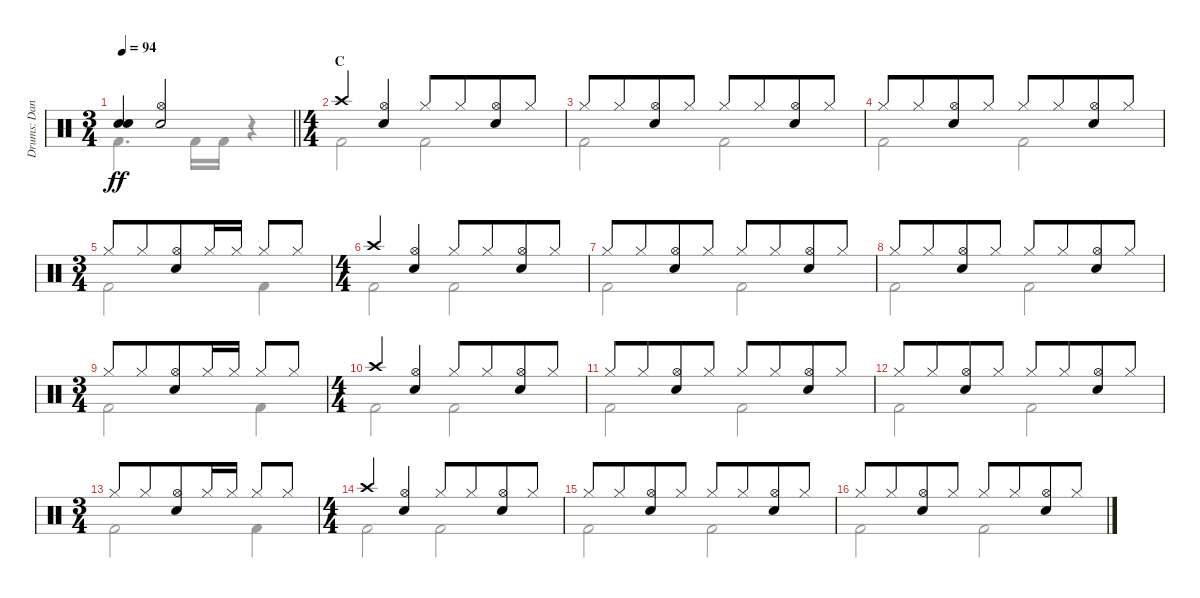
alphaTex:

\track ("Drums: Dana" "Drums: Dan") {instrument percussion}
\staff {score}
\articulation defaults
\voice
\ts (3 4)
\tempo 94
\clef neutral
\barLineRight lightlight
\ks c
("Snare (hit)"{t} "Snare (hit)"{t}).4{dy ff} ("Hi-Hat (open)" "Snare (hit) 2").2 |
\ts (4 4)
\section ("" "C")
"Crash high (hit)".4 ("Hi-Hat (open)" "Snare (hit) 2").4 "Hi-Hat (closed)".8 "Hi-Hat (closed)".8{beam merge} ("Hi-Hat (open)" "Snare (hit) 2").8 "Hi-Hat (closed)".8 |
"Hi-Hat (closed)".8 "Hi-Hat (closed)".8{beam merge} ("Hi-Hat (open)" "Snare (hit) 2").8 "Hi-Hat (closed)".8 "Hi-Hat (closed)".8 "Hi-Hat (closed)".8{beam merge} ("Hi-Hat (open)" "Snare (hit) 2").8 "Hi-Hat (closed)".8 |
"Hi-Hat (closed)".8 "Hi-Hat (closed)".8{beam merge} ("Hi-Hat (open)" "Snare (hit) 2").8 "Hi-Hat (closed)".8 "Hi-Hat (closed)".8 "Hi-Hat (closed)".8{beam merge} ("Hi-Hat (open)" "Snare (hit) 2").8 "Hi-Hat (closed)".8 |
\ts (3 4)
"Hi-Hat (closed)".8 "Hi-Hat (closed)".8{beam merge} ("Hi-Hat (open)" "Snare (hit) 2").8 "Hi-Hat (closed)".16 "Hi-Hat (closed)".16 "Hi-Hat (closed)".8 "Hi-Hat (closed)".8 |
\ts (4 4)
"Crash high (hit)".4 ("Hi-Hat (open)" "Snare (hit) 2").4 "Hi-Hat (closed)".8 "Hi-Hat (closed)".8{beam merge} ("Hi-Hat (open)" "Snare (hit) 2").8 "Hi-Hat (closed)".8 |
"Hi-Hat (closed)".8 "Hi-Hat (closed)".8{beam merge} ("Hi-Hat (open)" "Snare (hit) 2").8 "Hi-Hat (closed)".8 "Hi-Hat (closed)".8 "Hi-Hat (closed)".8{beam merge} ("Hi-Hat (open)" "Snare (hit) 2").8 "Hi-Hat (closed)".8 |
"Hi-Hat (closed)".8 "Hi-Hat (closed)".8{beam merge} ("Hi-Hat (open)" "Snare (hit) 2").8 "Hi-Hat (closed)".8 "Hi-Hat (closed)".8 "Hi-Hat (closed)".8{beam merge} ("Hi-Hat (open)" "Snare (hit) 2").8 "Hi-Hat (closed)".8 |
\ts (3 4)
"Hi-Hat (closed)".8 "Hi-Hat (closed)".8{beam merge} ("Hi-Hat (open)" "Snare (hit) 2").8 "Hi-Hat (closed)".16 "Hi-Hat (closed)".16 "Hi-Hat (closed)".8 "Hi-Hat (closed)".8 |
\ts (4 4)
"Crash high (hit)".4 ("Hi-Hat (open)" "Snare (hit) 2").4 "Hi-Hat (closed)".8 "Hi-Hat (closed)".8{beam merge} ("Hi-Hat (open)" "Snare (hit) 2").8 "Hi-Hat (closed)".8 |
"Hi-Hat (closed)".8 "Hi-Hat (closed)".8{beam merge} ("Hi-Hat (open)" "Snare (hit) 2").8 "Hi-Hat (closed)".8 "Hi-Hat (closed)".8 "Hi-Hat (closed)".8{beam merge} ("Hi-Hat (open)" "Snare (hit) 2").8 "Hi-Hat (closed)".8 |
"Hi-Hat (closed)".8 "Hi-Hat (closed)".8{beam merge} ("Hi-Hat (open)" "Snare (hit) 2").8 "Hi-Hat (closed)".8 "Hi-Hat (closed)".8 "Hi-Hat (closed)".8{beam merge} ("Hi-Hat (open)" "Snare (hit) 2").8 "Hi-Hat (closed)".8 |
\ts (3 4)
"Hi-Hat (closed)".8 "Hi-Hat (closed)".8{beam merge} ("Hi-Hat (open)" "Snare (hit) 2").8 "Hi-Hat (closed)".16 "Hi-Hat (closed)".16 "Hi-Hat (closed)".8 "Hi-Hat (closed)".8 |
\ts (4 4)
"Crash high (hit)".4 ("Hi-Hat (open)" "Snare (hit) 2").4 "Hi-Hat (closed)".8 "Hi-Hat (closed)".8{beam merge} ("Hi-Hat (open)" "Snare (hit) 2").8 "Hi-Hat (closed)".8 |
"Hi-Hat (closed)".8 "Hi-Hat (closed)".8{beam merge} ("Hi-Hat (open)" "Snare (hit) 2").8 "Hi-Hat (closed)".8 "Hi-Hat (closed)".8 "Hi-Hat (closed)".8{beam merge} ("Hi-Hat (open)" "Snare (hit) 2").8 "Hi-Hat (closed)".8 |
"Hi-Hat (closed)".8 "Hi-Hat (closed)".8{beam merge} ("Hi-Hat (open)" "Snare (hit) 2").8 "Hi-Hat (closed)".8 "Hi-Hat (closed)".8 "Hi-Hat (closed)".8{beam merge} ("Hi-Hat (open)" "Snare (hit) 2").8 "Hi-Hat (closed)".8
\voice
\clef neutral
\ottava regular
\simile none
\barLineRight lightlight
\ks c "Kick (hit) 2".4{d dy ff} "Kick (hit) 2".16 "Kick (hit) 2".16
r.4 |
"Kick (hit) 2".2 "Kick (hit) 2".2 |
"Kick (hit) 2".2 "Kick (hit) 2".2 |
"Kick (hit) 2".2 "Kick (hit) 2".2 |
"Kick (hit) 2".2 "Kick (hit) 2".4 |
"Kick (hit) 2".2 "Kick (hit) 2".2 |
"Kick (hit) 2".2 "Kick (hit) 2".2 |
"Kick (hit) 2".2 "Kick (hit) 2".2 |
"Kick (hit) 2".2 "Kick (hit) 2".4 |
"Kick (hit) 2".2 "Kick (hit) 2".2 |
"Kick (hit) 2".2 "Kick (hit) 2".2 |
"Kick (hit) 2".2 "Kick (hit) 2".2 |
"Kick (hit) 2".2 "Kick (hit) 2".4 |
"Kick (hit) 2".2 "Kick (hit) 2".2 |
"Kick (hit) 2".2 "Kick (hit) 2".2 |
"Kick (hit) 2".2 "Kick (hit) 2".2
